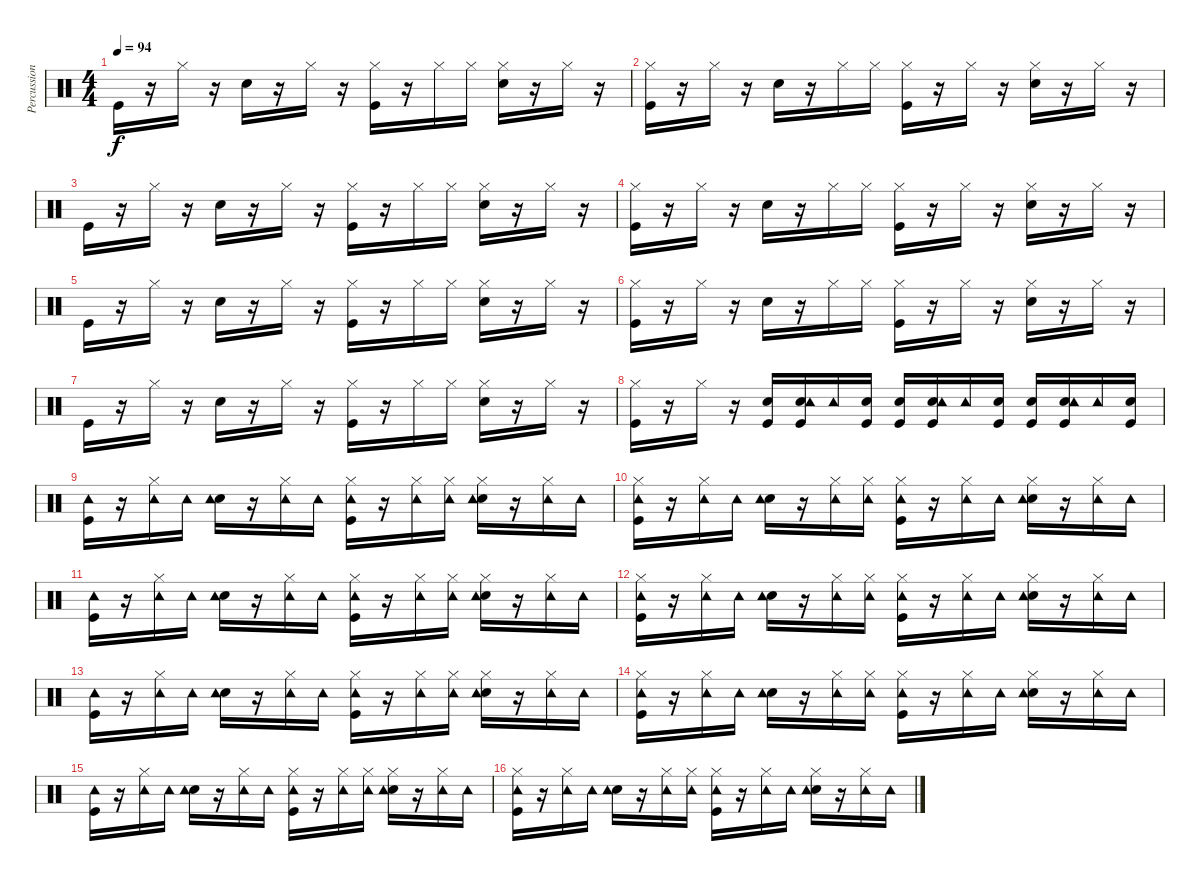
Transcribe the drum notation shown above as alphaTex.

\track ("Percussions/From Midi" "Percussion") {instrument percussion}
\staff {score}
\articulation defaults
\ts (4 4)
\tempo 94
\clef neutral
\ks c "Kick (hit)".16{dy f}
r.16 "Hi-Hat (closed)".16 r.16 "Electric Snare (hit)".16 r.16 "Hi-Hat (closed)".16 r.16 ("Kick (hit)" "Hi-Hat (closed)").16 r.16 "Hi-Hat (closed)".16 "Hi-Hat (closed)".16 ("Electric Snare (hit)" "Hi-Hat (closed)").16 r.16 "Hi-Hat (closed)".16 r.16 |
("Kick (hit)" "Hi-Hat (closed)").16 r.16 "Hi-Hat (closed)".16 r.16 "Electric Snare (hit)".16 r.16 "Hi-Hat (closed)".16 "Hi-Hat (closed)".16 ("Kick (hit)" "Hi-Hat (closed)").16 r.16 "Hi-Hat (closed)".16 r.16 ("Electric Snare (hit)" "Hi-Hat (closed)").16 r.16 "Hi-Hat (closed)".16 r.16 |
"Kick (hit)".16 r.16 "Hi-Hat (closed)".16 r.16 "Electric Snare (hit)".16 r.16 "Hi-Hat (closed)".16 r.16 ("Kick (hit)" "Hi-Hat (closed)").16 r.16 "Hi-Hat (closed)".16 "Hi-Hat (closed)".16 ("Electric Snare (hit)" "Hi-Hat (closed)").16 r.16 "Hi-Hat (closed)".16 r.16 |
("Kick (hit)" "Hi-Hat (closed)").16 r.16 "Hi-Hat (closed)".16 r.16 "Electric Snare (hit)".16 r.16 "Hi-Hat (closed)".16 "Hi-Hat (closed)".16 ("Kick (hit)" "Hi-Hat (closed)").16 r.16 "Hi-Hat (closed)".16 r.16 ("Electric Snare (hit)" "Hi-Hat (closed)").16 r.16 "Hi-Hat (closed)".16 r.16 |
"Kick (hit)".16 r.16 "Hi-Hat (closed)".16 r.16 "Electric Snare (hit)".16 r.16 "Hi-Hat (closed)".16 r.16 ("Kick (hit)" "Hi-Hat (closed)").16 r.16 "Hi-Hat (closed)".16 "Hi-Hat (closed)".16 ("Electric Snare (hit)" "Hi-Hat (closed)").16 r.16 "Hi-Hat (closed)".16 r.16 |
("Kick (hit)" "Hi-Hat (closed)").16 r.16 "Hi-Hat (closed)".16 r.16 "Electric Snare (hit)".16 r.16 "Hi-Hat (closed)".16 "Hi-Hat (closed)".16 ("Kick (hit)" "Hi-Hat (closed)").16 r.16 "Hi-Hat (closed)".16 r.16 ("Electric Snare (hit)" "Hi-Hat (closed)").16 r.16 "Hi-Hat (closed)".16 r.16 |
"Kick (hit)".16 r.16 "Hi-Hat (closed)".16 r.16 "Electric Snare (hit)".16 r.16 "Hi-Hat (closed)".16 r.16 ("Kick (hit)" "Hi-Hat (closed)").16 r.16 "Hi-Hat (closed)".16 "Hi-Hat (closed)".16 ("Electric Snare (hit)" "Hi-Hat (closed)").16 r.16 "Hi-Hat (closed)".16 r.16 |
("Kick (hit)" "Hi-Hat (closed)").16 r.16 "Hi-Hat (closed)".16 r.16 ("Kick (hit)" "Electric Snare (hit)").16 ("Kick (hit)" "Electric Snare (hit)" "Tambourine (hit)").16 "Tambourine (hit)".16 ("Kick (hit)" "Electric Snare (hit)").16 ("Kick (hit)" "Electric Snare (hit)").16 ("Kick (hit)" "Electric Snare (hit)" "Tambourine (hit)").16 "Tambourine (hit)".16 ("Kick (hit)" "Electric Snare (hit)").16 ("Kick (hit)" "Electric Snare (hit)").16 ("Kick (hit)" "Electric Snare (hit)" "Tambourine (hit)").16 "Tambourine (hit)".16 ("Kick (hit)" "Electric Snare (hit)").16 |
("Kick (hit)" "Tambourine (hit)").16 r.16 ("Hi-Hat (closed)" "Tambourine (hit)").16 "Tambourine (hit)".16 ("Electric Snare (hit)" "Tambourine (hit)").16 r.16 ("Hi-Hat (closed)" "Tambourine (hit)").16 "Tambourine (hit)".16 ("Kick (hit)" "Hi-Hat (closed)" "Tambourine (hit)").16 r.16 ("Hi-Hat (closed)" "Tambourine (hit)").16 ("Hi-Hat (closed)" "Tambourine (hit)").16 ("Electric Snare (hit)" "Hi-Hat (closed)" "Tambourine (hit)").16 r.16 ("Hi-Hat (closed)" "Tambourine (hit)").16 "Tambourine (hit)".16 |
("Kick (hit)" "Hi-Hat (closed)" "Tambourine (hit)").16 r.16 ("Hi-Hat (closed)" "Tambourine (hit)").16 "Tambourine (hit)".16 ("Electric Snare (hit)" "Tambourine (hit)").16 r.16 ("Hi-Hat (closed)" "Tambourine (hit)").16 ("Hi-Hat (closed)" "Tambourine (hit)").16 ("Kick (hit)" "Hi-Hat (closed)" "Tambourine (hit)").16 r.16 ("Hi-Hat (closed)" "Tambourine (hit)").16 "Tambourine (hit)".16 ("Electric Snare (hit)" "Hi-Hat (closed)" "Tambourine (hit)").16 r.16 ("Hi-Hat (closed)" "Tambourine (hit)").16 "Tambourine (hit)".16 |
("Kick (hit)" "Tambourine (hit)").16 r.16 ("Hi-Hat (closed)" "Tambourine (hit)").16 "Tambourine (hit)".16 ("Electric Snare (hit)" "Tambourine (hit)").16 r.16 ("Hi-Hat (closed)" "Tambourine (hit)").16 "Tambourine (hit)".16 ("Kick (hit)" "Hi-Hat (closed)" "Tambourine (hit)").16 r.16 ("Hi-Hat (closed)" "Tambourine (hit)").16 ("Hi-Hat (closed)" "Tambourine (hit)").16 ("Electric Snare (hit)" "Hi-Hat (closed)" "Tambourine (hit)").16 r.16 ("Hi-Hat (closed)" "Tambourine (hit)").16 "Tambourine (hit)".16 |
("Kick (hit)" "Hi-Hat (closed)" "Tambourine (hit)").16 r.16 ("Hi-Hat (closed)" "Tambourine (hit)").16 "Tambourine (hit)".16 ("Electric Snare (hit)" "Tambourine (hit)").16 r.16 ("Hi-Hat (closed)" "Tambourine (hit)").16 ("Hi-Hat (closed)" "Tambourine (hit)").16 ("Kick (hit)" "Hi-Hat (closed)" "Tambourine (hit)").16 r.16 ("Hi-Hat (closed)" "Tambourine (hit)").16 "Tambourine (hit)".16 ("Electric Snare (hit)" "Hi-Hat (closed)" "Tambourine (hit)").16 r.16 ("Hi-Hat (closed)" "Tambourine (hit)").16 "Tambourine (hit)".16 |
("Kick (hit)" "Tambourine (hit)").16 r.16 ("Hi-Hat (closed)" "Tambourine (hit)").16 "Tambourine (hit)".16 ("Electric Snare (hit)" "Tambourine (hit)").16 r.16 ("Hi-Hat (closed)" "Tambourine (hit)").16 "Tambourine (hit)".16 ("Kick (hit)" "Hi-Hat (closed)" "Tambourine (hit)").16 r.16 ("Hi-Hat (closed)" "Tambourine (hit)").16 ("Hi-Hat (closed)" "Tambourine (hit)").16 ("Electric Snare (hit)" "Hi-Hat (closed)" "Tambourine (hit)").16 r.16 ("Hi-Hat (closed)" "Tambourine (hit)").16 "Tambourine (hit)".16 |
("Kick (hit)" "Hi-Hat (closed)" "Tambourine (hit)").16 r.16 ("Hi-Hat (closed)" "Tambourine (hit)").16 "Tambourine (hit)".16 ("Electric Snare (hit)" "Tambourine (hit)").16 r.16 ("Hi-Hat (closed)" "Tambourine (hit)").16 ("Hi-Hat (closed)" "Tambourine (hit)").16 ("Kick (hit)" "Hi-Hat (closed)" "Tambourine (hit)").16 r.16 ("Hi-Hat (closed)" "Tambourine (hit)").16 "Tambourine (hit)".16 ("Electric Snare (hit)" "Hi-Hat (closed)" "Tambourine (hit)").16 r.16 ("Hi-Hat (closed)" "Tambourine (hit)").16 "Tambourine (hit)".16 |
("Kick (hit)" "Tambourine (hit)").16 r.16 ("Hi-Hat (closed)" "Tambourine (hit)").16 "Tambourine (hit)".16 ("Electric Snare (hit)" "Tambourine (hit)").16 r.16 ("Hi-Hat (closed)" "Tambourine (hit)").16 "Tambourine (hit)".16 ("Kick (hit)" "Hi-Hat (closed)" "Tambourine (hit)").16 r.16 ("Hi-Hat (closed)" "Tambourine (hit)").16 ("Hi-Hat (closed)" "Tambourine (hit)").16 ("Electric Snare (hit)" "Hi-Hat (closed)" "Tambourine (hit)").16 r.16 ("Hi-Hat (closed)" "Tambourine (hit)").16 "Tambourine (hit)".16 |
("Kick (hit)" "Hi-Hat (closed)" "Tambourine (hit)").16 r.16 ("Hi-Hat (closed)" "Tambourine (hit)").16 "Tambourine (hit)".16 ("Electric Snare (hit)" "Tambourine (hit)").16 r.16 ("Hi-Hat (closed)" "Tambourine (hit)").16 ("Hi-Hat (closed)" "Tambourine (hit)").16 ("Kick (hit)" "Hi-Hat (closed)" "Tambourine (hit)").16 r.16 ("Hi-Hat (closed)" "Tambourine (hit)").16 "Tambourine (hit)".16 ("Electric Snare (hit)" "Hi-Hat (closed)" "Tambourine (hit)").16 r.16 ("Hi-Hat (closed)" "Tambourine (hit)").16 "Tambourine (hit)".16
